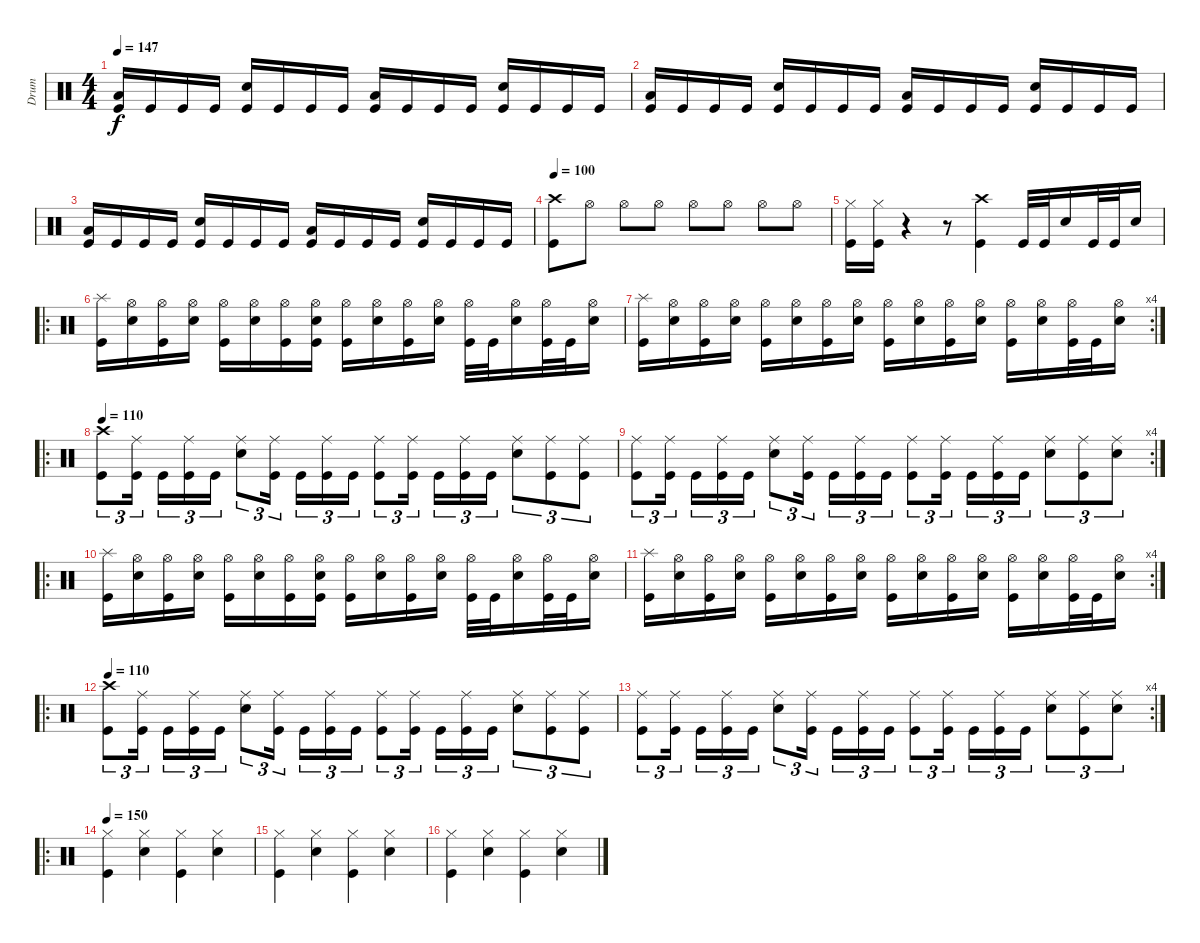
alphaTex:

\track ("Drum" "Drum") {instrument percussion}
\staff {score}
\articulation defaults
\ts (4 4)
\tempo 147
\clef neutral
\ks c
("Kick (hit)" "Low Floor Tom (hit)").16{dy f} "Kick (hit)".16 "Kick (hit)".16 "Kick (hit)".16 ("Kick (hit)" "Electric Snare (hit)").16 "Kick (hit)".16 "Kick (hit)".16 "Kick (hit)".16 ("Kick (hit)" "Low Floor Tom (hit)").16 "Kick (hit)".16 "Kick (hit)".16 "Kick (hit)".16 ("Kick (hit)" "Electric Snare (hit)").16 "Kick (hit)".16 "Kick (hit)".16 "Kick (hit)".16 |
("Kick (hit)" "Low Floor Tom (hit)").16 "Kick (hit)".16 "Kick (hit)".16 "Kick (hit)".16 ("Kick (hit)" "Electric Snare (hit)").16 "Kick (hit)".16 "Kick (hit)".16 "Kick (hit)".16 ("Kick (hit)" "Low Floor Tom (hit)").16 "Kick (hit)".16 "Kick (hit)".16 "Kick (hit)".16 ("Kick (hit)" "Electric Snare (hit)").16 "Kick (hit)".16 "Kick (hit)".16 "Kick (hit)".16 |
("Kick (hit)" "Low Floor Tom (hit)").16 "Kick (hit)".16 "Kick (hit)".16 "Kick (hit)".16 ("Kick (hit)" "Electric Snare (hit)").16 "Kick (hit)".16 "Kick (hit)".16 "Kick (hit)".16 ("Kick (hit)" "Low Floor Tom (hit)").16 "Kick (hit)".16 "Kick (hit)".16 "Kick (hit)".16 ("Kick (hit)" "Electric Snare (hit)").16 "Kick (hit)".16 "Kick (hit)".16 "Kick (hit)".16 |
\tempo 100
("Kick (hit)" "Crash high (hit)").8 "Hi-Hat (open)".8 "Hi-Hat (open)".8 "Hi-Hat (open)".8 "Hi-Hat (open)".8 "Hi-Hat (open)".8 "Hi-Hat (open)".8 "Hi-Hat (open)".8 |
("Kick (hit)" "Hi-Hat (closed)").16 ("Kick (hit)" "Hi-Hat (closed)").16 r.4 r.8 ("Kick (hit)" "Crash high (hit)").4 "Kick (hit)".32 "Kick (hit)".32 "Electric Snare (hit)".16 "Kick (hit)".32 "Kick (hit)".32 "Electric Snare (hit)".16 |
\ro
("Kick (hit)" "Splash (hit)").16 ("Electric Snare (hit)" "Hi-Hat (open)").16 ("Kick (hit)" "Hi-Hat (open)").16 ("Electric Snare (hit)" "Hi-Hat (open)").16 ("Kick (hit)" "Hi-Hat (open)").16 ("Electric Snare (hit)" "Hi-Hat (open)").16 ("Kick (hit)" "Hi-Hat (open)").16 ("Kick (hit)" "Electric Snare (hit)" "Hi-Hat (open)").16 ("Kick (hit)" "Hi-Hat (open)").16 ("Electric Snare (hit)" "Hi-Hat (open)").16 ("Kick (hit)" "Hi-Hat (open)").16 ("Electric Snare (hit)" "Hi-Hat (open)").16 ("Kick (hit)" "Hi-Hat (open)").32 "Kick (hit)".32 ("Electric Snare (hit)" "Hi-Hat (open)").16 ("Kick (hit)" "Hi-Hat (open)").32 "Kick (hit)".32 ("Electric Snare (hit)" "Hi-Hat (open)").16 |
\rc 4
("Kick (hit)" "Splash (hit)").16 ("Electric Snare (hit)" "Hi-Hat (open)").16 ("Kick (hit)" "Hi-Hat (open)").16 ("Electric Snare (hit)" "Hi-Hat (open)").16 ("Kick (hit)" "Hi-Hat (open)").16 ("Electric Snare (hit)" "Hi-Hat (open)").16 ("Kick (hit)" "Hi-Hat (open)").16 ("Electric Snare (hit)" "Hi-Hat (open)").16 ("Kick (hit)" "Hi-Hat (open)").16 ("Electric Snare (hit)" "Hi-Hat (open)").16 ("Kick (hit)" "Hi-Hat (open)").16 ("Electric Snare (hit)" "Hi-Hat (open)").16 ("Kick (hit)" "Hi-Hat (open)").16 ("Electric Snare (hit)" "Hi-Hat (open)").16 ("Kick (hit)" "Hi-Hat (open)").32 "Kick (hit)".32 ("Electric Snare (hit)" "Hi-Hat (open)").16 |
\ro
\tempo 110
("Crash high (hit)" "Kick (hit)").8{tu (3 2)} ("Ride (middle)" "Kick (hit)").16{tu (3 2)} "Kick (hit)".16{tu (3 2)} ("Ride (middle)" "Kick (hit)").16{tu (3 2)} "Kick (hit)".16{tu (3 2)} ("Ride (middle)" "Electric Snare (hit)").8{tu (3 2)} ("Ride (middle)" "Kick (hit)").16{tu (3 2)} "Kick (hit)".16{tu (3 2)} ("Ride (middle)" "Kick (hit)").16{tu (3 2)} "Kick (hit)".16{tu (3 2)} ("Ride (middle)" "Kick (hit)").8{tu (3 2)} ("Ride (middle)" "Kick (hit)").16{tu (3 2)} "Kick (hit)".16{tu (3 2)} ("Ride (middle)" "Kick (hit)").16{tu (3 2)} "Kick (hit)".16{tu (3 2)} ("Ride (middle)" "Electric Snare (hit)").8{tu (3 2)} ("Ride (middle)" "Kick (hit)").8{tu (3 2)} ("Ride (middle)" "Kick (hit)").8{tu (3 2)} |
\rc 4
("Ride (middle)" "Kick (hit)").8{tu (3 2)} ("Ride (middle)" "Kick (hit)").16{tu (3 2)} "Kick (hit)".16{tu (3 2)} ("Ride (middle)" "Kick (hit)").16{tu (3 2)} "Kick (hit)".16{tu (3 2)} ("Ride (middle)" "Electric Snare (hit)").8{tu (3 2)} ("Ride (middle)" "Kick (hit)").16{tu (3 2)} "Kick (hit)".16{tu (3 2)} ("Ride (middle)" "Kick (hit)").16{tu (3 2)} "Kick (hit)".16{tu (3 2)} ("Ride (middle)" "Kick (hit)").8{tu (3 2)} ("Ride (middle)" "Kick (hit)").16{tu (3 2)} "Kick (hit)".16{tu (3 2)} ("Ride (middle)" "Kick (hit)").16{tu (3 2)} "Kick (hit)".16{tu (3 2)} ("Ride (middle)" "Electric Snare (hit)").8{tu (3 2)} ("Ride (middle)" "Kick (hit)").8{tu (3 2)} ("Ride (middle)" "Electric Snare (hit)").8{tu (3 2)} |
\ro
("Kick (hit)" "Splash (hit)").16 ("Electric Snare (hit)" "Hi-Hat (open)").16 ("Kick (hit)" "Hi-Hat (open)").16 ("Electric Snare (hit)" "Hi-Hat (open)").16 ("Kick (hit)" "Hi-Hat (open)").16 ("Electric Snare (hit)" "Hi-Hat (open)").16 ("Kick (hit)" "Hi-Hat (open)").16 ("Kick (hit)" "Electric Snare (hit)" "Hi-Hat (open)").16 ("Kick (hit)" "Hi-Hat (open)").16 ("Electric Snare (hit)" "Hi-Hat (open)").16 ("Kick (hit)" "Hi-Hat (open)").16 ("Electric Snare (hit)" "Hi-Hat (open)").16 ("Kick (hit)" "Hi-Hat (open)").32 "Kick (hit)".32 ("Electric Snare (hit)" "Hi-Hat (open)").16 ("Kick (hit)" "Hi-Hat (open)").32 "Kick (hit)".32 ("Electric Snare (hit)" "Hi-Hat (open)").16 |
\rc 4
("Kick (hit)" "Splash (hit)").16 ("Electric Snare (hit)" "Hi-Hat (open)").16 ("Kick (hit)" "Hi-Hat (open)").16 ("Electric Snare (hit)" "Hi-Hat (open)").16 ("Kick (hit)" "Hi-Hat (open)").16 ("Electric Snare (hit)" "Hi-Hat (open)").16 ("Kick (hit)" "Hi-Hat (open)").16 ("Electric Snare (hit)" "Hi-Hat (open)").16 ("Kick (hit)" "Hi-Hat (open)").16 ("Electric Snare (hit)" "Hi-Hat (open)").16 ("Kick (hit)" "Hi-Hat (open)").16 ("Electric Snare (hit)" "Hi-Hat (open)").16 ("Kick (hit)" "Hi-Hat (open)").16 ("Electric Snare (hit)" "Hi-Hat (open)").16 ("Kick (hit)" "Hi-Hat (open)").32 "Kick (hit)".32 ("Electric Snare (hit)" "Hi-Hat (open)").16 |
\ro
\tempo 110
("Crash high (hit)" "Kick (hit)").8{tu (3 2)} ("Ride (middle)" "Kick (hit)").16{tu (3 2)} "Kick (hit)".16{tu (3 2)} ("Ride (middle)" "Kick (hit)").16{tu (3 2)} "Kick (hit)".16{tu (3 2)} ("Ride (middle)" "Electric Snare (hit)").8{tu (3 2)} ("Ride (middle)" "Kick (hit)").16{tu (3 2)} "Kick (hit)".16{tu (3 2)} ("Ride (middle)" "Kick (hit)").16{tu (3 2)} "Kick (hit)".16{tu (3 2)} ("Ride (middle)" "Kick (hit)").8{tu (3 2)} ("Ride (middle)" "Kick (hit)").16{tu (3 2)} "Kick (hit)".16{tu (3 2)} ("Ride (middle)" "Kick (hit)").16{tu (3 2)} "Kick (hit)".16{tu (3 2)} ("Ride (middle)" "Electric Snare (hit)").8{tu (3 2)} ("Ride (middle)" "Kick (hit)").8{tu (3 2)} ("Ride (middle)" "Kick (hit)").8{tu (3 2)} |
\rc 4
("Ride (middle)" "Kick (hit)").8{tu (3 2)} ("Ride (middle)" "Kick (hit)").16{tu (3 2)} "Kick (hit)".16{tu (3 2)} ("Ride (middle)" "Kick (hit)").16{tu (3 2)} "Kick (hit)".16{tu (3 2)} ("Ride (middle)" "Electric Snare (hit)").8{tu (3 2)} ("Ride (middle)" "Kick (hit)").16{tu (3 2)} "Kick (hit)".16{tu (3 2)} ("Ride (middle)" "Kick (hit)").16{tu (3 2)} "Kick (hit)".16{tu (3 2)} ("Ride (middle)" "Kick (hit)").8{tu (3 2)} ("Ride (middle)" "Kick (hit)").16{tu (3 2)} "Kick (hit)".16{tu (3 2)} ("Ride (middle)" "Kick (hit)").16{tu (3 2)} "Kick (hit)".16{tu (3 2)} ("Ride (middle)" "Electric Snare (hit)").8{tu (3 2)} ("Ride (middle)" "Kick (hit)").8{tu (3 2)} ("Ride (middle)" "Electric Snare (hit)").8{tu (3 2)} |
\ro
\tempo 150
("Kick (hit)" "Hi-Hat (closed)").4 ("Electric Snare (hit)" "Hi-Hat (closed)").4 ("Kick (hit)" "Hi-Hat (closed)").4 ("Electric Snare (hit)" "Hi-Hat (closed)").4 |
("Kick (hit)" "Hi-Hat (closed)").4 ("Electric Snare (hit)" "Hi-Hat (closed)").4 ("Kick (hit)" "Hi-Hat (closed)").4 ("Electric Snare (hit)" "Hi-Hat (closed)").4 |
("Kick (hit)" "Hi-Hat (closed)").4 ("Electric Snare (hit)" "Hi-Hat (closed)").4 ("Kick (hit)" "Hi-Hat (closed)").4 ("Electric Snare (hit)" "Hi-Hat (closed)").4
